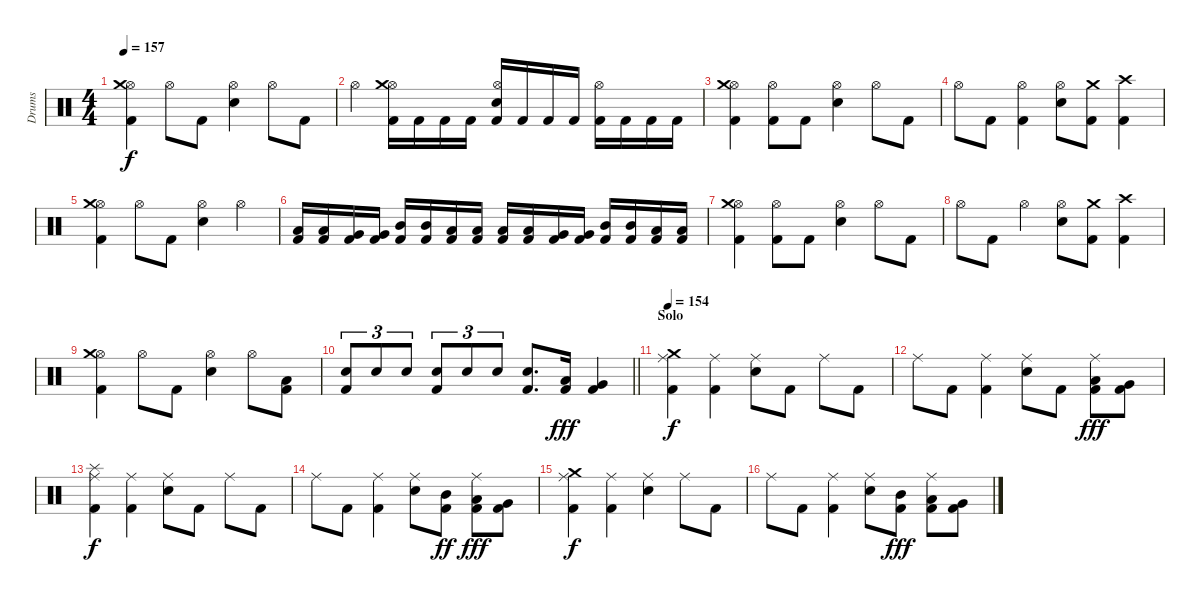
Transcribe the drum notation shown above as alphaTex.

\track ("Drums" "Drums") {instrument percussion}
\staff {score}
\articulation defaults
\ts (4 4)
\tempo 157
\clef neutral
\ks c
("Kick (hit) 2" "Hi-Hat (open)" "Crash medium (hit)").4{dy f} "Hi-Hat (open)".8 "Kick (hit) 2".8 ("Electric Snare (hit)" "Hi-Hat (open)").4 "Hi-Hat (open)".8 "Kick (hit) 2".8 |
"Hi-Hat (open)".4 ("Kick (hit) 2" "Hi-Hat (open)" "Crash medium (hit)").16 "Kick (hit) 2".16 "Kick (hit) 2".16 "Kick (hit) 2".16 ("Kick (hit) 2" "Electric Snare (hit)" "Hi-Hat (open)").16 "Kick (hit) 2".16 "Kick (hit) 2".16 "Kick (hit) 2".16 ("Kick (hit) 2" "Hi-Hat (open)").16 "Kick (hit) 2".16 "Kick (hit) 2".16 "Kick (hit) 2".16 |
("Kick (hit) 2" "Hi-Hat (open)" "Crash medium (hit)").4 ("Kick (hit) 2" "Hi-Hat (open)").8 "Kick (hit) 2".8 ("Electric Snare (hit)" "Hi-Hat (open)").4 "Hi-Hat (open)".8 "Kick (hit) 2".8 |
"Hi-Hat (open)".8 "Kick (hit) 2".8 ("Kick (hit) 2" "Hi-Hat (open)").4 ("Electric Snare (hit)" "Hi-Hat (open)").8 ("Kick (hit) 2" "Crash medium (hit)").8 ("Kick (hit) 2" "Crash high (hit)").4 |
("Kick (hit) 2" "Hi-Hat (open)" "Crash medium (hit)").4 "Hi-Hat (open)".8 "Kick (hit) 2".8 ("Electric Snare (hit)" "Hi-Hat (open)").4 "Hi-Hat (open)".4 |
("Kick (hit) 2" "Low Tom (hit)").16 ("Kick (hit) 2" "Low Tom (hit)").16 ("Kick (hit) 2" "Very Low Tom (hit)").16 ("Kick (hit) 2" "Very Low Tom (hit)").16 ("Kick (hit) 2" "Mid Tom (hit)").16 ("Kick (hit) 2" "Mid Tom (hit)").16 ("Kick (hit) 2" "Low Tom (hit)").16 ("Kick (hit) 2" "Low Tom (hit)").16 ("Kick (hit) 2" "Low Tom (hit)").16 ("Kick (hit) 2" "Low Tom (hit)").16 ("Kick (hit) 2" "Very Low Tom (hit)").16 ("Kick (hit) 2" "Very Low Tom (hit)").16 ("Kick (hit) 2" "Mid Tom (hit)").16 ("Kick (hit) 2" "Mid Tom (hit)").16 ("Kick (hit) 2" "Low Tom (hit)").16 ("Kick (hit) 2" "Low Tom (hit)").16 |
("Kick (hit) 2" "Hi-Hat (open)" "Crash medium (hit)").4 ("Kick (hit) 2" "Hi-Hat (open)").8 "Kick (hit) 2".8 ("Electric Snare (hit)" "Hi-Hat (open)").4 "Hi-Hat (open)".8 "Kick (hit) 2".8 |
"Hi-Hat (open)".8 "Kick (hit) 2".8 "Hi-Hat (open)".4 ("Electric Snare (hit)" "Hi-Hat (open)").8 ("Kick (hit) 2" "Crash medium (hit)").8 ("Kick (hit) 2" "Crash high (hit)").4 |
("Kick (hit) 2" "Hi-Hat (open)" "Crash medium (hit)").4 "Hi-Hat (open)".8 "Kick (hit) 2".8 ("Electric Snare (hit)" "Hi-Hat (open)").4 "Hi-Hat (open)".8 ("Kick (hit) 2" "Low Tom (hit)").8 |
\barLineRight lightlight
("Kick (hit) 2" "Electric Snare (hit)").8{tu (3 2)} "Electric Snare (hit)".8{tu (3 2)} "Electric Snare (hit)".8{tu (3 2)} ("Kick (hit) 2" "Electric Snare (hit)").8{tu (3 2)} "Electric Snare (hit)".8{tu (3 2)} "Electric Snare (hit)".8{tu (3 2)} ("Kick (hit) 2" "Electric Snare (hit)").8{d} ("Kick (hit) 2" "Low Tom (hit)").16{dy fff} ("Kick (hit) 2" "Very Low Tom (hit)").4 |
\section ("" "Solo")
\tempo 154
("Kick (hit) 2" "Ride (middle)" "Crash medium (hit)").4{dy f} ("Kick (hit) 2" "Ride (middle)").4 ("Electric Snare (hit)" "Ride (middle)").8 "Kick (hit) 2".8 "Ride (middle)".8 "Kick (hit) 2".8 |
"Ride (middle)".8 "Kick (hit) 2".8 ("Kick (hit) 2" "Ride (middle)").4 ("Electric Snare (hit)" "Ride (middle)").8 "Kick (hit) 2".8 ("Kick (hit) 2" "Low Tom (hit)" "Ride (middle)").8{dy fff} ("Kick (hit) 2" "Very Low Tom (hit)").8 |
("Kick (hit) 2" "Ride (middle)" "Splash (hit)").4{dy f} ("Kick (hit) 2" "Ride (middle)").4 ("Electric Snare (hit)" "Ride (middle)").8 "Kick (hit) 2".8 "Ride (middle)".8 "Kick (hit) 2".8 |
"Ride (middle)".8 "Kick (hit) 2".8 ("Kick (hit) 2" "Ride (middle)").4 ("Electric Snare (hit)" "Ride (middle)").8 ("Kick (hit) 2" "Mid Tom (hit)").8{dy ff} ("Kick (hit) 2" "Low Tom (hit)" "Ride (middle)").8{dy fff} ("Kick (hit) 2" "Very Low Tom (hit)").8 |
("Kick (hit) 2" "Ride (middle)" "Crash medium (hit)").4{dy f} ("Kick (hit) 2" "Ride (middle)").4 ("Electric Snare (hit)" "Ride (middle)").4 "Ride (middle)".8 "Kick (hit) 2".8 |
"Ride (middle)".8 "Kick (hit) 2".8 ("Kick (hit) 2" "Ride (middle)").4 ("Electric Snare (hit)" "Ride (middle)").8 ("Kick (hit) 2" "Mid Tom (hit)").8{dy fff} ("Kick (hit) 2" "Low Tom (hit)" "Ride (middle)").8 ("Kick (hit) 2" "Very Low Tom (hit)").8
